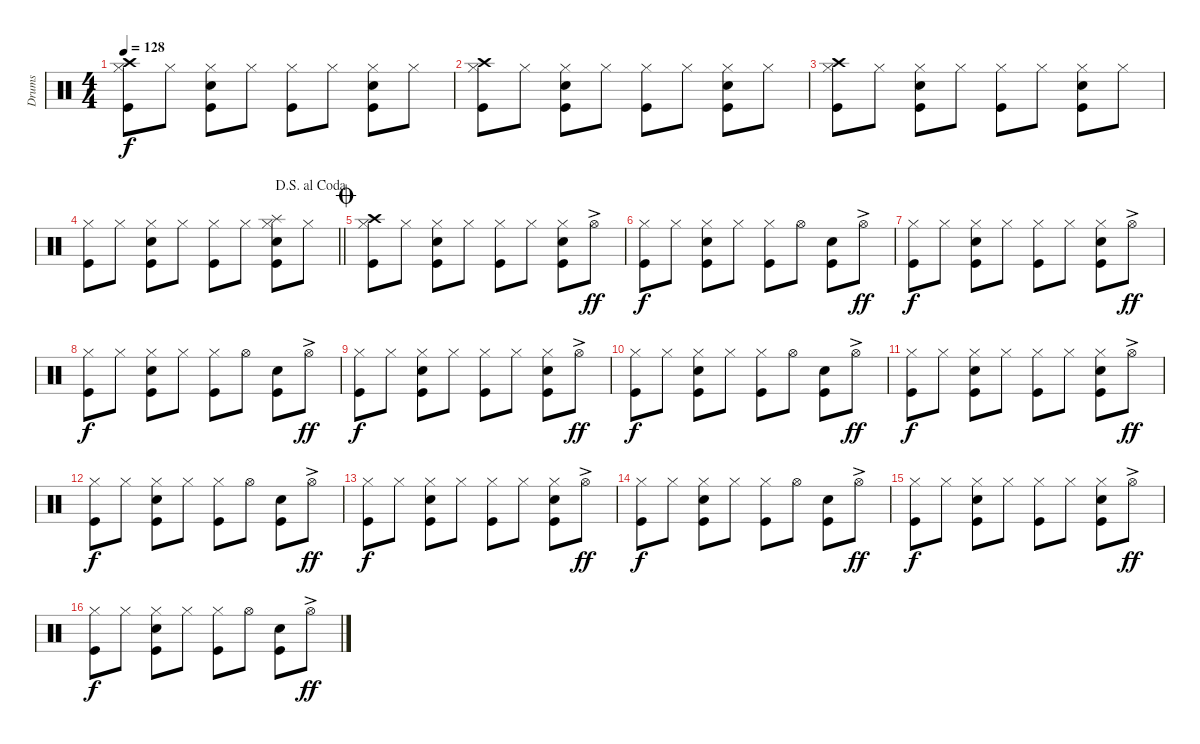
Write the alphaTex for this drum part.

\track ("Drums" "Drums") {instrument percussion}
\staff {score}
\articulation defaults
\ts (4 4)
\tempo 128
\clef neutral
\ks c
("Crash high (hit)" "Hi-Hat (closed)" "Kick (hit)").8{dy f} "Hi-Hat (closed)".8 ("Hi-Hat (closed)" "Electric Snare (hit)" "Kick (hit)").8 "Hi-Hat (closed)".8 ("Hi-Hat (closed)" "Kick (hit)").8 "Hi-Hat (closed)".8 ("Hi-Hat (closed)" "Electric Snare (hit)" "Kick (hit)").8 "Hi-Hat (closed)".8 |
("Crash high (hit)" "Hi-Hat (closed)" "Kick (hit)").8 "Hi-Hat (closed)".8 ("Hi-Hat (closed)" "Electric Snare (hit)" "Kick (hit)").8 "Hi-Hat (closed)".8 ("Hi-Hat (closed)" "Kick (hit)").8 "Hi-Hat (closed)".8 ("Hi-Hat (closed)" "Electric Snare (hit)" "Kick (hit)").8 "Hi-Hat (closed)".8 |
("Crash high (hit)" "Hi-Hat (closed)" "Kick (hit)").8 "Hi-Hat (closed)".8 ("Hi-Hat (closed)" "Electric Snare (hit)" "Kick (hit)").8 "Hi-Hat (closed)".8 ("Hi-Hat (closed)" "Kick (hit)").8 "Hi-Hat (closed)".8 ("Hi-Hat (closed)" "Electric Snare (hit)" "Kick (hit)").8 "Hi-Hat (closed)".8 |
\jump dalsegnoalcoda
\barLineRight lightlight
("Hi-Hat (closed)" "Kick (hit)").8 "Hi-Hat (closed)".8 ("Hi-Hat (closed)" "Electric Snare (hit)" "Kick (hit)").8 "Hi-Hat (closed)".8 ("Hi-Hat (closed)" "Kick (hit)").8 "Hi-Hat (closed)".8 ("Splash (hit)" "Hi-Hat (closed)" "Electric Snare (hit)" "Kick (hit)").8 "Hi-Hat (closed)".8 |
\jump coda
("Crash high (hit)" "Hi-Hat (closed)" "Kick (hit)").8 "Hi-Hat (closed)".8 ("Hi-Hat (closed)" "Electric Snare (hit)" "Kick (hit)").8 "Hi-Hat (closed)".8 ("Hi-Hat (closed)" "Kick (hit)").8 "Hi-Hat (closed)".8 ("Hi-Hat (closed)" "Electric Snare (hit)" "Kick (hit)").8 "Hi-Hat (open)"{ac}.8{dy ff} |
("Hi-Hat (closed)" "Kick (hit)").8{dy f} "Hi-Hat (closed)".8 ("Hi-Hat (closed)" "Electric Snare (hit)" "Kick (hit)").8 "Hi-Hat (closed)".8 ("Hi-Hat (closed)" "Kick (hit)").8 "Hi-Hat (open)".8 ("Electric Snare (hit)" "Kick (hit)").8 "Hi-Hat (open)"{ac}.8{dy ff} |
("Hi-Hat (closed)" "Kick (hit)").8{dy f} "Hi-Hat (closed)".8 ("Hi-Hat (closed)" "Electric Snare (hit)" "Kick (hit)").8 "Hi-Hat (closed)".8 ("Hi-Hat (closed)" "Kick (hit)").8 "Hi-Hat (closed)".8 ("Hi-Hat (closed)" "Electric Snare (hit)" "Kick (hit)").8 "Hi-Hat (open)"{ac}.8{dy ff} |
("Hi-Hat (closed)" "Kick (hit)").8{dy f} "Hi-Hat (closed)".8 ("Hi-Hat (closed)" "Electric Snare (hit)" "Kick (hit)").8 "Hi-Hat (closed)".8 ("Hi-Hat (closed)" "Kick (hit)").8 "Hi-Hat (open)".8 ("Electric Snare (hit)" "Kick (hit)").8 "Hi-Hat (open)"{ac}.8{dy ff} |
("Hi-Hat (closed)" "Kick (hit)").8{dy f} "Hi-Hat (closed)".8 ("Hi-Hat (closed)" "Electric Snare (hit)" "Kick (hit)").8 "Hi-Hat (closed)".8 ("Hi-Hat (closed)" "Kick (hit)").8 "Hi-Hat (closed)".8 ("Hi-Hat (closed)" "Electric Snare (hit)" "Kick (hit)").8 "Hi-Hat (open)"{ac}.8{dy ff} |
("Hi-Hat (closed)" "Kick (hit)").8{dy f} "Hi-Hat (closed)".8 ("Hi-Hat (closed)" "Electric Snare (hit)" "Kick (hit)").8 "Hi-Hat (closed)".8 ("Hi-Hat (closed)" "Kick (hit)").8 "Hi-Hat (open)".8 ("Electric Snare (hit)" "Kick (hit)").8 "Hi-Hat (open)"{ac}.8{dy ff} |
("Hi-Hat (closed)" "Kick (hit)").8{dy f} "Hi-Hat (closed)".8 ("Hi-Hat (closed)" "Electric Snare (hit)" "Kick (hit)").8 "Hi-Hat (closed)".8 ("Hi-Hat (closed)" "Kick (hit)").8 "Hi-Hat (closed)".8 ("Hi-Hat (closed)" "Electric Snare (hit)" "Kick (hit)").8 "Hi-Hat (open)"{ac}.8{dy ff} |
("Hi-Hat (closed)" "Kick (hit)").8{dy f} "Hi-Hat (closed)".8 ("Hi-Hat (closed)" "Electric Snare (hit)" "Kick (hit)").8 "Hi-Hat (closed)".8 ("Hi-Hat (closed)" "Kick (hit)").8 "Hi-Hat (open)".8 ("Electric Snare (hit)" "Kick (hit)").8 "Hi-Hat (open)"{ac}.8{dy ff} |
("Hi-Hat (closed)" "Kick (hit)").8{dy f} "Hi-Hat (closed)".8 ("Hi-Hat (closed)" "Electric Snare (hit)" "Kick (hit)").8 "Hi-Hat (closed)".8 ("Hi-Hat (closed)" "Kick (hit)").8 "Hi-Hat (closed)".8 ("Hi-Hat (closed)" "Electric Snare (hit)" "Kick (hit)").8 "Hi-Hat (open)"{ac}.8{dy ff} |
("Hi-Hat (closed)" "Kick (hit)").8{dy f} "Hi-Hat (closed)".8 ("Hi-Hat (closed)" "Electric Snare (hit)" "Kick (hit)").8 "Hi-Hat (closed)".8 ("Hi-Hat (closed)" "Kick (hit)").8 "Hi-Hat (open)".8 ("Electric Snare (hit)" "Kick (hit)").8 "Hi-Hat (open)"{ac}.8{dy ff} |
("Hi-Hat (closed)" "Kick (hit)").8{dy f} "Hi-Hat (closed)".8 ("Hi-Hat (closed)" "Electric Snare (hit)" "Kick (hit)").8 "Hi-Hat (closed)".8 ("Hi-Hat (closed)" "Kick (hit)").8 "Hi-Hat (closed)".8 ("Hi-Hat (closed)" "Electric Snare (hit)" "Kick (hit)").8 "Hi-Hat (open)"{ac}.8{dy ff} |
("Hi-Hat (closed)" "Kick (hit)").8{dy f} "Hi-Hat (closed)".8 ("Hi-Hat (closed)" "Electric Snare (hit)" "Kick (hit)").8 "Hi-Hat (closed)".8 ("Hi-Hat (closed)" "Kick (hit)").8 "Hi-Hat (open)".8 ("Electric Snare (hit)" "Kick (hit)").8 "Hi-Hat (open)"{ac}.8{dy ff}
